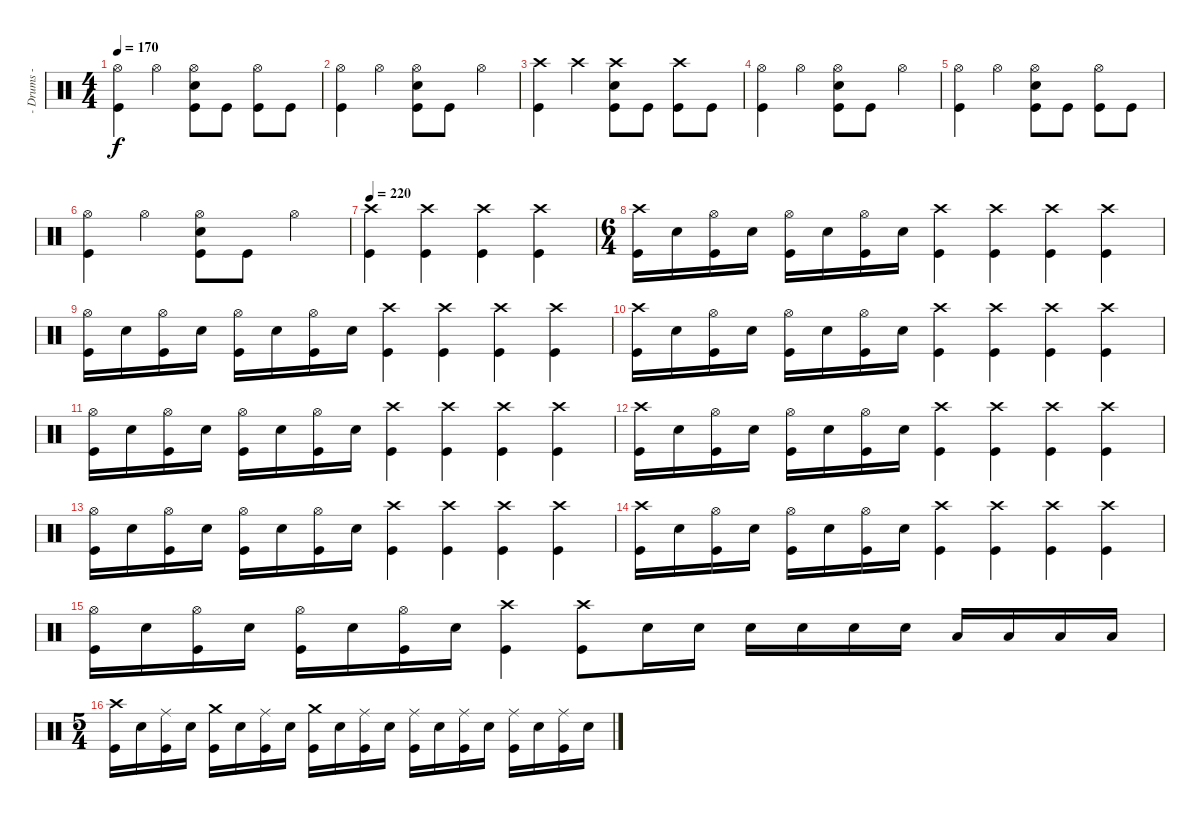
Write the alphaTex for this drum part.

\track ("- Drums -" "- Drums -") {instrument percussion}
\staff {score}
\articulation defaults
\ts (4 4)
\tempo 170
\clef neutral
\ks c
("Hi-Hat (open)" "Kick (hit)").4{dy f} "Hi-Hat (open)".4 ("Hi-Hat (open)" "Electric Snare (hit)" "Kick (hit)").8 "Kick (hit)".8 ("Hi-Hat (open)" "Kick (hit)").8 "Kick (hit)".8 |
("Hi-Hat (open)" "Kick (hit)").4 "Hi-Hat (open)".4 ("Hi-Hat (open)" "Electric Snare (hit)" "Kick (hit)").8 "Kick (hit)".8 "Hi-Hat (open)".4 |
("Crash high (hit)" "Kick (hit)").4 "Crash high (hit)".4 ("Crash high (hit)" "Electric Snare (hit)" "Kick (hit)").8 "Kick (hit)".8 ("Crash high (hit)" "Kick (hit)").8 "Kick (hit)".8 |
("Hi-Hat (open)" "Kick (hit)").4 "Hi-Hat (open)".4 ("Hi-Hat (open)" "Electric Snare (hit)" "Kick (hit)").8 "Kick (hit)".8 "Hi-Hat (open)".4 |
("Hi-Hat (open)" "Kick (hit)").4 "Hi-Hat (open)".4 ("Hi-Hat (open)" "Electric Snare (hit)" "Kick (hit)").8 "Kick (hit)".8 ("Hi-Hat (open)" "Kick (hit)").8 "Kick (hit)".8 |
("Hi-Hat (open)" "Kick (hit)").4 "Hi-Hat (open)".4 ("Hi-Hat (open)" "Electric Snare (hit)" "Kick (hit)").8 "Kick (hit)".8 "Hi-Hat (open)".4 |
\tempo 220
("Crash high (hit)" "Kick (hit)").4 ("Crash high (hit)" "Kick (hit)").4 ("Crash high (hit)" "Kick (hit)").4 ("Crash high (hit)" "Kick (hit)").4 |
\ts (6 4)
("Crash high (hit)" "Kick (hit)").16 "Electric Snare (hit)".16 ("Hi-Hat (open)" "Kick (hit)").16 "Electric Snare (hit)".16 ("Hi-Hat (open)" "Kick (hit)").16 "Electric Snare (hit)".16 ("Hi-Hat (open)" "Kick (hit)").16 "Electric Snare (hit)".16 ("Crash high (hit)" "Kick (hit)").4 ("Crash high (hit)" "Kick (hit)").4 ("Crash high (hit)" "Kick (hit)").4 ("Crash high (hit)" "Kick (hit)").4 |
("Hi-Hat (open)" "Kick (hit)").16 "Electric Snare (hit)".16 ("Hi-Hat (open)" "Kick (hit)").16 "Electric Snare (hit)".16 ("Hi-Hat (open)" "Kick (hit)").16 "Electric Snare (hit)".16 ("Hi-Hat (open)" "Kick (hit)").16 "Electric Snare (hit)".16 ("Crash high (hit)" "Kick (hit)").4 ("Crash high (hit)" "Kick (hit)").4 ("Crash high (hit)" "Kick (hit)").4 ("Crash high (hit)" "Kick (hit)").4 |
("Crash high (hit)" "Kick (hit)").16 "Electric Snare (hit)".16 ("Hi-Hat (open)" "Kick (hit)").16 "Electric Snare (hit)".16 ("Hi-Hat (open)" "Kick (hit)").16 "Electric Snare (hit)".16 ("Hi-Hat (open)" "Kick (hit)").16 "Electric Snare (hit)".16 ("Crash high (hit)" "Kick (hit)").4 ("Crash high (hit)" "Kick (hit)").4 ("Crash high (hit)" "Kick (hit)").4 ("Crash high (hit)" "Kick (hit)").4 |
("Hi-Hat (open)" "Kick (hit)").16 "Electric Snare (hit)".16 ("Hi-Hat (open)" "Kick (hit)").16 "Electric Snare (hit)".16 ("Hi-Hat (open)" "Kick (hit)").16 "Electric Snare (hit)".16 ("Hi-Hat (open)" "Kick (hit)").16 "Electric Snare (hit)".16 ("Crash high (hit)" "Kick (hit)").4 ("Crash high (hit)" "Kick (hit)").4 ("Crash high (hit)" "Kick (hit)").4 ("Crash high (hit)" "Kick (hit)").4 |
("Crash high (hit)" "Kick (hit)").16 "Electric Snare (hit)".16 ("Hi-Hat (open)" "Kick (hit)").16 "Electric Snare (hit)".16 ("Hi-Hat (open)" "Kick (hit)").16 "Electric Snare (hit)".16 ("Hi-Hat (open)" "Kick (hit)").16 "Electric Snare (hit)".16 ("Crash high (hit)" "Kick (hit)").4 ("Crash high (hit)" "Kick (hit)").4 ("Crash high (hit)" "Kick (hit)").4 ("Crash high (hit)" "Kick (hit)").4 |
("Hi-Hat (open)" "Kick (hit)").16 "Electric Snare (hit)".16 ("Hi-Hat (open)" "Kick (hit)").16 "Electric Snare (hit)".16 ("Hi-Hat (open)" "Kick (hit)").16 "Electric Snare (hit)".16 ("Hi-Hat (open)" "Kick (hit)").16 "Electric Snare (hit)".16 ("Crash high (hit)" "Kick (hit)").4 ("Crash high (hit)" "Kick (hit)").4 ("Crash high (hit)" "Kick (hit)").4 ("Crash high (hit)" "Kick (hit)").4 |
("Crash high (hit)" "Kick (hit)").16 "Electric Snare (hit)".16 ("Hi-Hat (open)" "Kick (hit)").16 "Electric Snare (hit)".16 ("Hi-Hat (open)" "Kick (hit)").16 "Electric Snare (hit)".16 ("Hi-Hat (open)" "Kick (hit)").16 "Electric Snare (hit)".16 ("Crash high (hit)" "Kick (hit)").4 ("Crash high (hit)" "Kick (hit)").4 ("Crash high (hit)" "Kick (hit)").4 ("Crash high (hit)" "Kick (hit)").4 |
("Hi-Hat (open)" "Kick (hit)").16 "Electric Snare (hit)".16 ("Hi-Hat (open)" "Kick (hit)").16 "Electric Snare (hit)".16 ("Hi-Hat (open)" "Kick (hit)").16 "Electric Snare (hit)".16 ("Hi-Hat (open)" "Kick (hit)").16 "Electric Snare (hit)".16 ("Crash high (hit)" "Kick (hit)").4 ("Crash high (hit)" "Kick (hit)").8 "Electric Snare (hit)".16 "Electric Snare (hit)".16 "Electric Snare (hit)".16 "Electric Snare (hit)".16 "Electric Snare (hit)".16 "Electric Snare (hit)".16 "Low Tom (hit)".16 "Low Tom (hit)".16 "Low Tom (hit)".16 "Low Tom (hit)".16 |
\ts (5 4)
("Crash high (hit)" "Kick (hit)").16 "Electric Snare (hit)".16 ("Ride (middle)" "Kick (hit)").16 "Electric Snare (hit)".16 ("Crash medium (hit)" "Kick (hit)").16 "Electric Snare (hit)".16 ("Ride (middle)" "Kick (hit)").16 "Electric Snare (hit)".16 ("Crash medium (hit)" "Kick (hit)").16 "Electric Snare (hit)".16 ("Ride (middle)" "Kick (hit)").16 "Electric Snare (hit)".16 ("Ride (middle)" "Kick (hit)").16 "Electric Snare (hit)".16 ("Ride (middle)" "Kick (hit)").16 "Electric Snare (hit)".16 ("Ride (middle)" "Kick (hit)").16 "Electric Snare (hit)".16 ("Ride (middle)" "Kick (hit)").16 "Electric Snare (hit)".16
